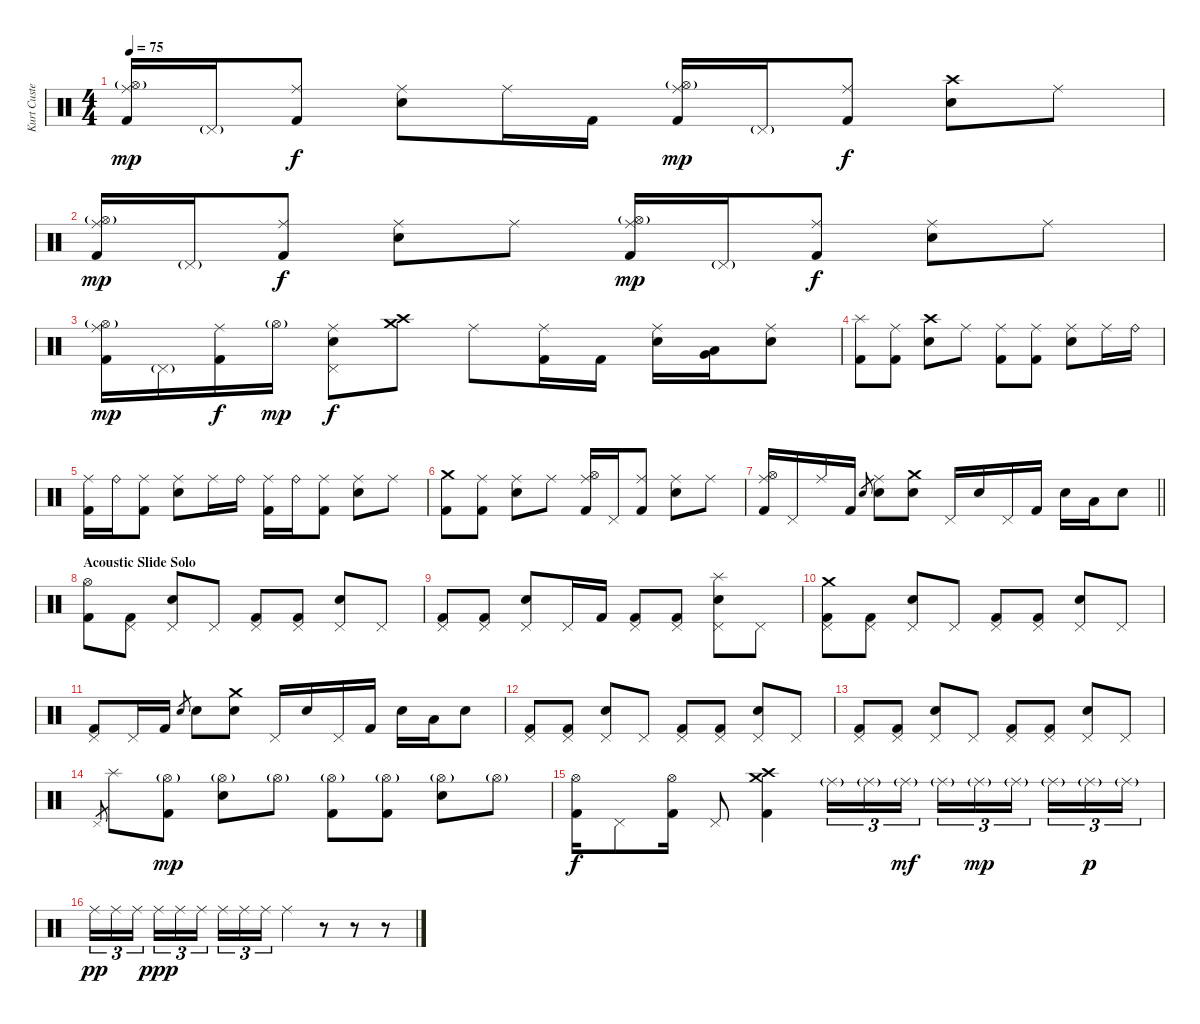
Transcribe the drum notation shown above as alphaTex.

\track ("Kurt Custer - Drums and Percussion" "Kurt Custe") {instrument percussion}
\staff
\articulation defaults
\ts (4 4)
\tempo 75
\clef neutral
\ks c
("Ride (middle)" "Hi-Hat (open)"{g} "Kick (hit) 2").16{dy mp} "Pedal Hi-Hat (hit)"{g}.16 ("Ride (middle)" "Kick (hit) 2").8{dy f} ("Ride (middle)" "Snare (hit) 2").8 "Ride (middle)".16 "Kick (hit) 2".16 ("Ride (middle)" "Hi-Hat (open)"{g} "Kick (hit) 2").16{dy mp} "Pedal Hi-Hat (hit)"{g}.16 ("Ride (middle)" "Kick (hit) 2").8{dy f} ("Crash high (hit)" "Snare (hit) 2").8 "Ride (middle)".8 |
("Ride (middle)" "Hi-Hat (open)"{g} "Kick (hit) 2").16{dy mp} "Pedal Hi-Hat (hit)"{g}.16 ("Ride (middle)" "Kick (hit) 2").8{dy f} ("Ride (middle)" "Snare (hit) 2").8 "Ride (middle)".8 ("Ride (middle)" "Hi-Hat (open)"{g} "Kick (hit) 2").16{dy mp} "Pedal Hi-Hat (hit)"{g}.16 ("Ride (middle)" "Kick (hit) 2").8{dy f} ("Ride (middle)" "Snare (hit) 2").8 "Ride (middle)".8 |
("Ride (middle)" "Hi-Hat (open)"{g} "Kick (hit) 2").16{dy mp} "Pedal Hi-Hat (hit)"{g}.16 ("Ride (middle)" "Kick (hit) 2").16{dy f} "Hi-Hat (open)"{g}.16{dy mp} ("Ride (middle)" "Snare (hit) 2" "Pedal Hi-Hat (hit)").8{dy f} ("Crash medium (hit)" "Crash high (hit)").8 "Ride (middle)".8 ("Ride (middle)" "Kick (hit) 2").16 "Kick (hit) 2".16 ("Ride (middle)" "Snare (hit) 2").16 ("Very Low Tom (hit)" "Low Floor Tom (hit)").16 ("Ride (middle)" "Snare (hit) 2").8 |
("Splash (hit)" "Kick (hit) 2").8 ("Ride (middle)" "Kick (hit) 2").8 ("Crash high (hit)" "Snare (hit) 2").8 "Ride (middle)".8 ("Ride (middle)" "Kick (hit) 2").8 ("Ride (middle)" "Kick (hit) 2").8 ("Ride (middle)" "Snare (hit) 2").8 "Ride (middle)".16 "Ride (bell)".16 |
("Ride (middle)" "Kick (hit) 2").16 "Ride (bell)".16 ("Ride (middle)" "Kick (hit) 2").8 ("Ride (middle)" "Snare (hit) 2").8 "Ride (middle)".16 "Ride (bell)".16 ("Ride (middle)" "Kick (hit) 2").16 "Ride (bell)".16 ("Ride (middle)" "Kick (hit) 2").8 ("Ride (middle)" "Snare (hit) 2").8 "Ride (middle)".8 |
("Crash medium (hit)" "Kick (hit) 2").8 ("Ride (middle)" "Kick (hit) 2").8 ("Ride (middle)" "Snare (hit) 2").8 "Ride (middle)".8 ("Ride (middle)" "Hi-Hat (open)" "Kick (hit) 2").16 "Pedal Hi-Hat (hit)".16 ("Ride (middle)" "Kick (hit) 2").8 ("Ride (middle)" "Snare (hit) 2").8 "Ride (middle)".8 |
\barLineRight lightlight
("Ride (middle)" "Hi-Hat (open)" "Kick (hit) 2").16 "Pedal Hi-Hat (hit)".16 "Ride (middle)".16 "Kick (hit) 2".16 "Snare (hit) 2".8{gr} ("Ride (middle)" "Snare (hit) 2").8 ("Crash medium (hit)" "Snare (hit) 2").8 "Pedal Hi-Hat (hit)".16 "Snare (hit) 2".16 "Pedal Hi-Hat (hit)".16 "Kick (hit) 2".16 "Snare (hit) 2".16 "Low Floor Tom (hit)".16 "Snare (hit) 2".8 |
\section ("" "Acoustic Slide Solo")
("Hi-Hat (open)" "Kick (hit) 2").8 ("Pedal Hi-Hat (hit)" "Kick (hit) 2").8 ("Snare (hit) 2" "Pedal Hi-Hat (hit)").8 "Pedal Hi-Hat (hit)".8 ("Pedal Hi-Hat (hit)" "Kick (hit) 2").8 ("Pedal Hi-Hat (hit)" "Kick (hit) 2").8 ("Snare (hit) 2" "Pedal Hi-Hat (hit)").8 "Pedal Hi-Hat (hit)".8 |
("Pedal Hi-Hat (hit)" "Kick (hit) 2").8 ("Pedal Hi-Hat (hit)" "Kick (hit) 2").8 ("Snare (hit) 2" "Pedal Hi-Hat (hit)").8 "Pedal Hi-Hat (hit)".16 "Kick (hit) 2".16 ("Pedal Hi-Hat (hit)" "Kick (hit) 2").8 ("Pedal Hi-Hat (hit)" "Kick (hit) 2").8 ("Splash (hit)" "Snare (hit) 2" "Pedal Hi-Hat (hit)").8 "Pedal Hi-Hat (hit)".8 |
("Crash medium (hit)" "Pedal Hi-Hat (hit)" "Kick (hit) 2").8 ("Pedal Hi-Hat (hit)" "Kick (hit) 2").8 ("Snare (hit) 2" "Pedal Hi-Hat (hit)").8 "Pedal Hi-Hat (hit)".8 ("Pedal Hi-Hat (hit)" "Kick (hit) 2").8 ("Pedal Hi-Hat (hit)" "Kick (hit) 2").8 ("Snare (hit) 2" "Pedal Hi-Hat (hit)").8 "Pedal Hi-Hat (hit)".8 |
("Pedal Hi-Hat (hit)" "Kick (hit) 2").8 "Pedal Hi-Hat (hit)".16 "Kick (hit) 2".16 "Snare (hit) 2".8{gr} "Snare (hit) 2".8 ("Crash medium (hit)" "Snare (hit) 2").8 "Pedal Hi-Hat (hit)".16 "Snare (hit) 2".16 "Pedal Hi-Hat (hit)".16 "Kick (hit) 2".16 "Snare (hit) 2".16 "Low Floor Tom (hit)".16 "Snare (hit) 2".8 |
("Pedal Hi-Hat (hit)" "Kick (hit) 2").8 ("Pedal Hi-Hat (hit)" "Kick (hit) 2").8 ("Snare (hit) 2" "Pedal Hi-Hat (hit)").8 "Pedal Hi-Hat (hit)".8 ("Pedal Hi-Hat (hit)" "Kick (hit) 2").8 ("Pedal Hi-Hat (hit)" "Kick (hit) 2").8 ("Snare (hit) 2" "Pedal Hi-Hat (hit)").8 "Pedal Hi-Hat (hit)".8 |
("Pedal Hi-Hat (hit)" "Kick (hit) 2").8 ("Pedal Hi-Hat (hit)" "Kick (hit) 2").8 ("Snare (hit) 2" "Pedal Hi-Hat (hit)").8 "Pedal Hi-Hat (hit)".8 ("Pedal Hi-Hat (hit)" "Kick (hit) 2").8 ("Pedal Hi-Hat (hit)" "Kick (hit) 2").8 ("Snare (hit) 2" "Pedal Hi-Hat (hit)").8 "Pedal Hi-Hat (hit)".8 |
"Pedal Hi-Hat (hit)".8{gr} "Splash (hit)".8 ("Hi-Hat (open)"{g} "Kick (hit) 2").8{dy mp} ("Snare (hit) 2" "Hi-Hat (open)"{g}).8 "Hi-Hat (open)"{g}.8 ("Hi-Hat (open)"{g} "Kick (hit) 2").8 ("Hi-Hat (open)"{g} "Kick (hit) 2").8 ("Snare (hit) 2" "Hi-Hat (open)"{g}).8 "Hi-Hat (open)"{g}.8 |
("Hi-Hat (open)" "Kick (hit) 2").16{dy f} "Pedal Hi-Hat (hit)".8 ("Hi-Hat (open)" "Kick (hit) 2").16 "Pedal Hi-Hat (hit)".8 ("Crash medium (hit)" "Crash high (hit)" "Kick (hit) 2").4 "Ride (middle)"{g}.16{tu (3 2)} "Ride (middle)"{g}.16{tu (3 2)} "Ride (middle)"{g}.16{tu (3 2) dy mf} "Ride (middle)"{g}.16{tu (3 2)} "Ride (middle)"{g}.16{tu (3 2) dy mp} "Ride (middle)"{g}.16{tu (3 2) beam splitsecondary} "Ride (middle)"{g}.16{tu (3 2)} "Ride (middle)"{g}.16{tu (3 2) dy p} "Ride (middle)"{g}.16{tu (3 2)} |
"Ride (middle)".16{tu (3 2) dy pp} "Ride (middle)".16{tu (3 2)} "Ride (middle)".16{tu (3 2) beam splitsecondary} "Ride (middle)".16{tu (3 2) dy ppp} "Ride (middle)".16{tu (3 2)} "Ride (middle)".16{tu (3 2)} "Ride (middle)".16{tu (3 2)} "Ride (middle)".16{tu (3 2)} "Ride (middle)".16{tu (3 2)} "Ride (middle)".4 r.8 r.8 r.8
